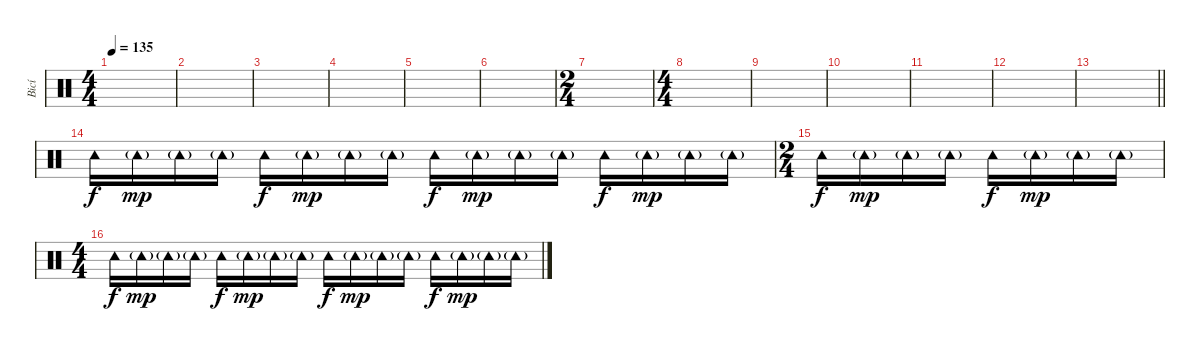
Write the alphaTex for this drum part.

\track ("Bicí" "Bicí") {instrument percussion}
\staff {score}
\articulation defaults
\ts (4 4)
\tempo 135
\clef neutral
\ks c
|
|
|
|
|
|
\ts (2 4)
|
\ts (4 4)
|
|
|
|
|
\barLineRight lightlight
|
\section ("" "")
"Tambourine (hit)".16{dy f} "Tambourine (hit)"{g}.16{dy mp} "Tambourine (hit)"{g}.16 "Tambourine (hit)"{g}.16 "Tambourine (hit)".16{dy f} "Tambourine (hit)"{g}.16{dy mp} "Tambourine (hit)"{g}.16 "Tambourine (hit)"{g}.16 "Tambourine (hit)".16{dy f} "Tambourine (hit)"{g}.16{dy mp} "Tambourine (hit)"{g}.16 "Tambourine (hit)"{g}.16 "Tambourine (hit)".16{dy f} "Tambourine (hit)"{g}.16{dy mp} "Tambourine (hit)"{g}.16 "Tambourine (hit)"{g}.16 |
\ts (2 4)
"Tambourine (hit)".16{dy f} "Tambourine (hit)"{g}.16{dy mp} "Tambourine (hit)"{g}.16 "Tambourine (hit)"{g}.16 "Tambourine (hit)".16{dy f} "Tambourine (hit)"{g}.16{dy mp} "Tambourine (hit)"{g}.16 "Tambourine (hit)"{g}.16 |
\ts (4 4)
"Tambourine (hit)".16{dy f} "Tambourine (hit)"{g}.16{dy mp} "Tambourine (hit)"{g}.16 "Tambourine (hit)"{g}.16 "Tambourine (hit)".16{dy f} "Tambourine (hit)"{g}.16{dy mp} "Tambourine (hit)"{g}.16 "Tambourine (hit)"{g}.16 "Tambourine (hit)".16{dy f} "Tambourine (hit)"{g}.16{dy mp} "Tambourine (hit)"{g}.16 "Tambourine (hit)"{g}.16 "Tambourine (hit)".16{dy f} "Tambourine (hit)"{g}.16{dy mp} "Tambourine (hit)"{g}.16 "Tambourine (hit)"{g}.16
